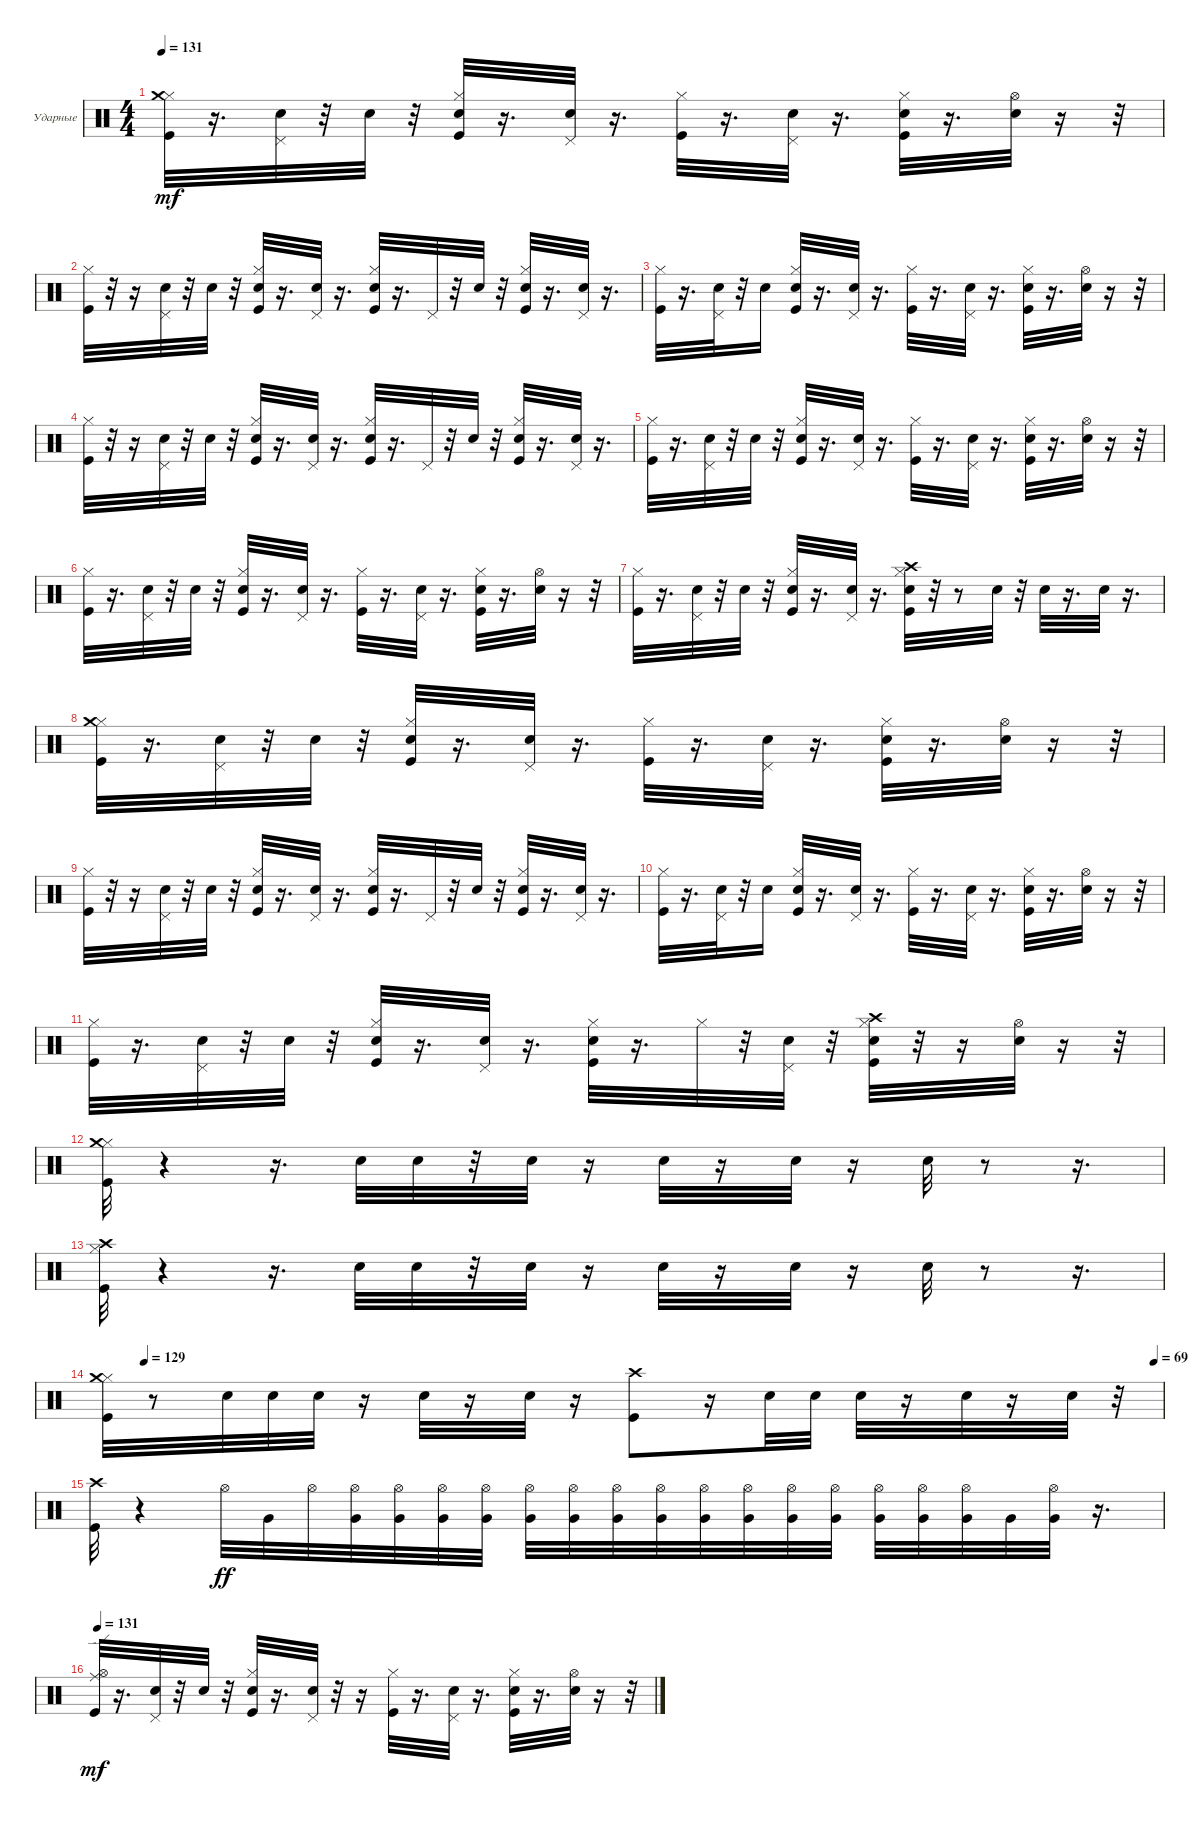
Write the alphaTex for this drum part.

\bracketExtendMode groupsimilarinstruments
\firstSystemTrackNameOrientation horizontal
\otherSystemsTrackNameOrientation horizontal
\track ("Ударные" "Ударные") {instrument percussion}
\staff {score}
\articulation defaults
\ts (4 4)
\tempo 131
\clef neutral
\ks c
("Kick (hit)" "Hi-Hat (closed)" "Crash medium (hit)").32{dy mf} r.16{d} ("Snare (hit) 2" "Pedal Hi-Hat (hit)").32 r.32 "Snare (hit) 2".32 r.32 ("Hi-Hat (closed)" "Snare (hit) 2" "Kick (hit)").32 r.16{d} ("Snare (hit) 2" "Pedal Hi-Hat (hit)").32 r.16{d} ("Hi-Hat (closed)" "Kick (hit)").32 r.16{d} ("Snare (hit) 2" "Pedal Hi-Hat (hit)").32 r.16{d} ("Hi-Hat (closed)" "Snare (hit) 2" "Kick (hit)").32 r.16{d} ("Snare (hit) 2" "Hi-Hat (open)").32 r.16 r.32 |
("Hi-Hat (closed)" "Kick (hit)").32 r.32 r.16 ("Snare (hit) 2" "Pedal Hi-Hat (hit)").32 r.32 "Snare (hit) 2".32 r.32 ("Snare (hit) 2" "Hi-Hat (closed)" "Kick (hit)").32 r.16{d} ("Snare (hit) 2" "Pedal Hi-Hat (hit)").32 r.16{d} ("Snare (hit) 2" "Hi-Hat (closed)" "Kick (hit)").32 r.16{d} "Pedal Hi-Hat (hit)".32 r.32 "Snare (hit) 2".32 r.32 ("Snare (hit) 2" "Hi-Hat (closed)" "Kick (hit)").32 r.16{d} ("Snare (hit) 2" "Pedal Hi-Hat (hit)").32 r.16{d} |
("Hi-Hat (closed)" "Kick (hit)").32 r.16{d} ("Snare (hit) 2" "Pedal Hi-Hat (hit)").32 r.32 "Snare (hit) 2".16 ("Snare (hit) 2" "Hi-Hat (closed)" "Kick (hit)").32 r.16{d} ("Snare (hit) 2" "Pedal Hi-Hat (hit)").32 r.16{d} ("Kick (hit)" "Hi-Hat (closed)").32 r.16{d} ("Snare (hit) 2" "Pedal Hi-Hat (hit)").32 r.16{d} ("Hi-Hat (closed)" "Snare (hit) 2" "Kick (hit)").32 r.16{d} ("Snare (hit) 2" "Hi-Hat (open)").32 r.16 r.32 |
("Hi-Hat (closed)" "Kick (hit)").32 r.32 r.16 ("Snare (hit) 2" "Pedal Hi-Hat (hit)").32 r.32 "Snare (hit) 2".32 r.32 ("Snare (hit) 2" "Hi-Hat (closed)" "Kick (hit)").32 r.16{d} ("Snare (hit) 2" "Pedal Hi-Hat (hit)").32 r.16{d} ("Snare (hit) 2" "Hi-Hat (closed)" "Kick (hit)").32 r.16{d} "Pedal Hi-Hat (hit)".32 r.32 "Snare (hit) 2".32 r.32 ("Hi-Hat (closed)" "Snare (hit) 2" "Kick (hit)").32 r.16{d} ("Snare (hit) 2" "Pedal Hi-Hat (hit)").32 r.16{d} |
("Hi-Hat (closed)" "Kick (hit)").32 r.16{d} ("Snare (hit) 2" "Pedal Hi-Hat (hit)").32 r.32 "Snare (hit) 2".32 r.32 ("Snare (hit) 2" "Hi-Hat (closed)" "Kick (hit)").32 r.16{d} ("Snare (hit) 2" "Pedal Hi-Hat (hit)").32 r.16{d} ("Kick (hit)" "Hi-Hat (closed)").32 r.16{d} ("Snare (hit) 2" "Pedal Hi-Hat (hit)").32 r.16{d} ("Hi-Hat (closed)" "Snare (hit) 2" "Kick (hit)").32 r.16{d} ("Snare (hit) 2" "Hi-Hat (open)").32 r.16 r.32 |
("Hi-Hat (closed)" "Kick (hit)").32 r.16{d} ("Snare (hit) 2" "Pedal Hi-Hat (hit)").32 r.32 "Snare (hit) 2".32 r.32 ("Snare (hit) 2" "Hi-Hat (closed)" "Kick (hit)").32 r.16{d} ("Snare (hit) 2" "Pedal Hi-Hat (hit)").32 r.16{d} ("Hi-Hat (closed)" "Kick (hit)").32 r.16{d} ("Snare (hit) 2" "Pedal Hi-Hat (hit)").32 r.16{d} ("Hi-Hat (closed)" "Snare (hit) 2" "Kick (hit)").32 r.16{d} ("Snare (hit) 2" "Hi-Hat (open)").32 r.16 r.32 |
("Hi-Hat (closed)" "Kick (hit)").32 r.16{d} ("Snare (hit) 2" "Pedal Hi-Hat (hit)").32 r.32 "Snare (hit) 2".32 r.32 ("Snare (hit) 2" "Hi-Hat (closed)" "Kick (hit)").32 r.16{d} ("Snare (hit) 2" "Pedal Hi-Hat (hit)").32 r.16{d} ("Snare (hit) 2" "Crash high (hit)" "Hi-Hat (closed)" "Kick (hit)").32 r.32 r.8 "Snare (hit) 2".32 r.32 "Snare (hit) 2".32 r.16{d} "Snare (hit) 2".32 r.16{d} |
("Kick (hit)" "Hi-Hat (closed)" "Crash medium (hit)").32 r.16{d} ("Snare (hit) 2" "Pedal Hi-Hat (hit)").32 r.32 "Snare (hit) 2".32 r.32 ("Hi-Hat (closed)" "Snare (hit) 2" "Kick (hit)").32 r.16{d} ("Snare (hit) 2" "Pedal Hi-Hat (hit)").32 r.16{d} ("Hi-Hat (closed)" "Kick (hit)").32 r.16{d} ("Snare (hit) 2" "Pedal Hi-Hat (hit)").32 r.16{d} ("Hi-Hat (closed)" "Snare (hit) 2" "Kick (hit)").32 r.16{d} ("Snare (hit) 2" "Hi-Hat (open)").32 r.16 r.32 |
("Hi-Hat (closed)" "Kick (hit)").32 r.32 r.16 ("Snare (hit) 2" "Pedal Hi-Hat (hit)").32 r.32 "Snare (hit) 2".32 r.32 ("Snare (hit) 2" "Hi-Hat (closed)" "Kick (hit)").32 r.16{d} ("Snare (hit) 2" "Pedal Hi-Hat (hit)").32 r.16{d} ("Snare (hit) 2" "Hi-Hat (closed)" "Kick (hit)").32 r.16{d} "Pedal Hi-Hat (hit)".32 r.32 "Snare (hit) 2".32 r.32 ("Snare (hit) 2" "Hi-Hat (closed)" "Kick (hit)").32 r.16{d} ("Snare (hit) 2" "Pedal Hi-Hat (hit)").32 r.16{d} |
("Hi-Hat (closed)" "Kick (hit)").32 r.16{d} ("Snare (hit) 2" "Pedal Hi-Hat (hit)").32 r.32 "Snare (hit) 2".16 ("Snare (hit) 2" "Hi-Hat (closed)" "Kick (hit)").32 r.16{d} ("Snare (hit) 2" "Pedal Hi-Hat (hit)").32 r.16{d} ("Kick (hit)" "Hi-Hat (closed)").32 r.16{d} ("Snare (hit) 2" "Pedal Hi-Hat (hit)").32 r.16{d} ("Hi-Hat (closed)" "Snare (hit) 2" "Kick (hit)").32 r.16{d} ("Snare (hit) 2" "Hi-Hat (open)").32 r.16 r.32 |
("Hi-Hat (closed)" "Kick (hit)").32 r.16{d} ("Snare (hit) 2" "Pedal Hi-Hat (hit)").32 r.32 "Snare (hit) 2".32 r.32 ("Snare (hit) 2" "Hi-Hat (closed)" "Kick (hit)").32 r.16{d} ("Snare (hit) 2" "Pedal Hi-Hat (hit)").32 r.16{d} ("Snare (hit) 2" "Hi-Hat (closed)" "Kick (hit)").32 r.16{d} "Hi-Hat (closed)".32 r.32 ("Snare (hit) 2" "Pedal Hi-Hat (hit)").32 r.32 ("Crash high (hit)" "Hi-Hat (closed)" "Snare (hit) 2" "Kick (hit)").32 r.32 r.16 ("Snare (hit) 2" "Hi-Hat (open)").32 r.16 r.32 |
("Kick (hit)" "Hi-Hat (closed)" "Crash medium (hit)").32 r.4 r.16{d} "Snare (hit) 2".32 "Snare (hit) 2".32 r.32 "Snare (hit) 2".32 r.16 "Snare (hit) 2".32 r.16 "Snare (hit) 2".32 r.16 "Snare (hit) 2".32 r.8 r.16{d} |
("Kick (hit)" "Hi-Hat (closed)" "Crash high (hit)").32 r.4 r.16{d} "Snare (hit) 2".32 "Snare (hit) 2".32 r.32 "Snare (hit) 2".32 r.16 "Snare (hit) 2".32 r.16 "Snare (hit) 2".32 r.16 "Snare (hit) 2".32 r.8 r.16{d} |
\tempo (129 0.0416667)
\tempo (69 0.992188)
("Kick (hit)" "Hi-Hat (closed)" "Crash medium (hit)").32 r.8 "Snare (hit) 2".32 "Snare (hit) 2".32 "Snare (hit) 2".32 r.16 "Snare (hit) 2".32 r.16 "Snare (hit) 2".32 r.16 ("Crash high (hit)" "Kick (hit)").8 r.16 "Snare (hit) 2".32 "Snare (hit) 2".32 "Snare (hit) 2".32 r.16 "Snare (hit) 2".32 r.16 "Snare (hit) 2".32 r.32 |
("Kick (hit)" "Crash high (hit)").32 r.4 "Hi-Hat (open)".32{dy ff} "Very Low Tom (hit)".32 "Hi-Hat (open)".32 ("Very Low Tom (hit)" "Hi-Hat (open)").32 ("Very Low Tom (hit)" "Hi-Hat (open)").32 ("Very Low Tom (hit)" "Hi-Hat (open)").32 ("Hi-Hat (open)" "Very Low Tom (hit)").32 ("Hi-Hat (open)" "Very Low Tom (hit)").32 ("Very Low Tom (hit)" "Hi-Hat (open)").32 ("Very Low Tom (hit)" "Hi-Hat (open)").32 ("Hi-Hat (open)" "Very Low Tom (hit)").32 ("Hi-Hat (open)" "Very Low Tom (hit)").32 ("Hi-Hat (open)" "Very Low Tom (hit)").32 ("Very Low Tom (hit)" "Hi-Hat (open)").32 ("Hi-Hat (open)" "Very Low Tom (hit)").32 ("Hi-Hat (open)" "Very Low Tom (hit)").32 ("Very Low Tom (hit)" "Hi-Hat (open)").32 ("Hi-Hat (open)" "Very Low Tom (hit)").32 "Very Low Tom (hit)".32 ("Very Low Tom (hit)" "Hi-Hat (open)").32 r.16{d} |
\tempo 131
("Ride (edge)" "Hi-Hat (open)" "Kick (hit)").32{dy mf} r.16{d} ("Snare (hit) 2" "Pedal Hi-Hat (hit)").32 r.32 "Snare (hit) 2".32 r.32 ("Hi-Hat (closed)" "Snare (hit) 2" "Kick (hit)").32 r.16{d} ("Snare (hit) 2" "Pedal Hi-Hat (hit)").32 r.32 r.16 ("Hi-Hat (closed)" "Kick (hit)").32 r.16{d} ("Snare (hit) 2" "Pedal Hi-Hat (hit)").32 r.16{d} ("Hi-Hat (closed)" "Snare (hit) 2" "Kick (hit)").32 r.16{d} ("Snare (hit) 2" "Hi-Hat (open)").32 r.16 r.32
